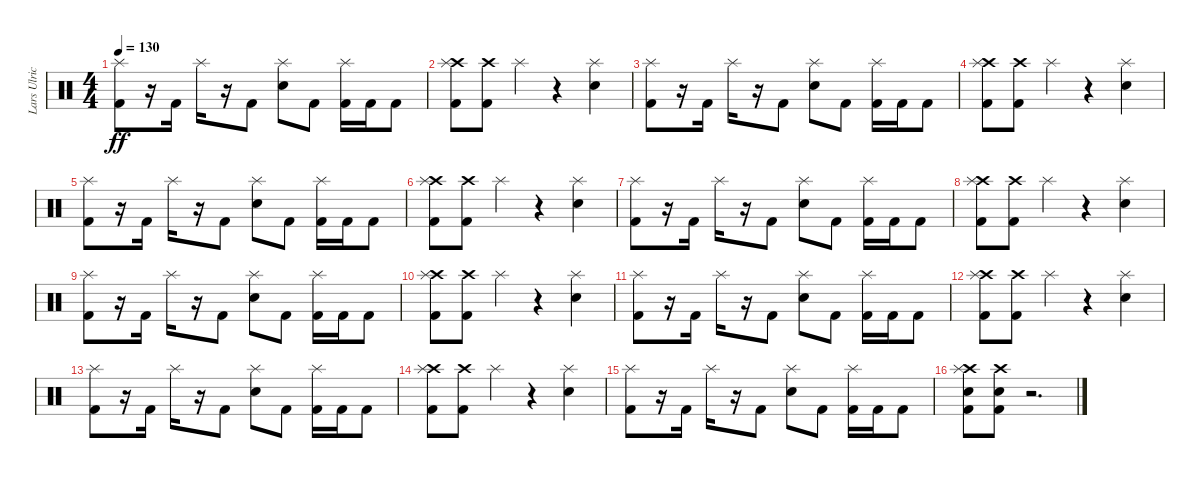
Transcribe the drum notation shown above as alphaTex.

\track ("Lars Ulrich" "Lars Ulric") {instrument percussion}
\staff {score}
\articulation defaults
\ts (4 4)
\tempo 130
\clef neutral
\ks c
("Kick (hit) 2" "Splash (hit)").8{dy ff} r.16 "Kick (hit) 2".16 "Splash (hit)".16 r.16 "Kick (hit) 2".8 ("Electric Snare (hit)" "Splash (hit)").8 "Kick (hit) 2".8 ("Kick (hit) 2" "Splash (hit)").16 "Kick (hit) 2".16 "Kick (hit) 2".8 |
("Kick (hit) 2" "Crash high (hit)" "Splash (hit)").8 ("Kick (hit) 2" "Crash high (hit)").8 "Splash (hit)".4 r.4 ("Electric Snare (hit)" "Splash (hit)").4 |
("Kick (hit) 2" "Splash (hit)").8 r.16 "Kick (hit) 2".16 "Splash (hit)".16 r.16 "Kick (hit) 2".8 ("Electric Snare (hit)" "Splash (hit)").8 "Kick (hit) 2".8 ("Kick (hit) 2" "Splash (hit)").16 "Kick (hit) 2".16 "Kick (hit) 2".8 |
("Kick (hit) 2" "Crash high (hit)" "Splash (hit)").8 ("Kick (hit) 2" "Crash high (hit)").8 "Splash (hit)".4 r.4 ("Electric Snare (hit)" "Splash (hit)").4 |
("Kick (hit) 2" "Splash (hit)").8 r.16 "Kick (hit) 2".16 "Splash (hit)".16 r.16 "Kick (hit) 2".8 ("Electric Snare (hit)" "Splash (hit)").8 "Kick (hit) 2".8 ("Kick (hit) 2" "Splash (hit)").16 "Kick (hit) 2".16 "Kick (hit) 2".8 |
("Kick (hit) 2" "Crash high (hit)" "Splash (hit)").8 ("Kick (hit) 2" "Crash high (hit)").8 "Splash (hit)".4 r.4 ("Electric Snare (hit)" "Splash (hit)").4 |
("Kick (hit) 2" "Splash (hit)").8 r.16 "Kick (hit) 2".16 "Splash (hit)".16 r.16 "Kick (hit) 2".8 ("Electric Snare (hit)" "Splash (hit)").8 "Kick (hit) 2".8 ("Kick (hit) 2" "Splash (hit)").16 "Kick (hit) 2".16 "Kick (hit) 2".8 |
("Kick (hit) 2" "Crash high (hit)" "Splash (hit)").8 ("Kick (hit) 2" "Crash high (hit)").8 "Splash (hit)".4 r.4 ("Electric Snare (hit)" "Splash (hit)").4 |
("Kick (hit) 2" "Splash (hit)").8 r.16 "Kick (hit) 2".16 "Splash (hit)".16 r.16 "Kick (hit) 2".8 ("Electric Snare (hit)" "Splash (hit)").8 "Kick (hit) 2".8 ("Kick (hit) 2" "Splash (hit)").16 "Kick (hit) 2".16 "Kick (hit) 2".8 |
("Kick (hit) 2" "Crash high (hit)" "Splash (hit)").8 ("Kick (hit) 2" "Crash high (hit)").8 "Splash (hit)".4 r.4 ("Electric Snare (hit)" "Splash (hit)").4 |
("Kick (hit) 2" "Splash (hit)").8 r.16 "Kick (hit) 2".16 "Splash (hit)".16 r.16 "Kick (hit) 2".8 ("Electric Snare (hit)" "Splash (hit)").8 "Kick (hit) 2".8 ("Kick (hit) 2" "Splash (hit)").16 "Kick (hit) 2".16 "Kick (hit) 2".8 |
("Kick (hit) 2" "Crash high (hit)" "Splash (hit)").8 ("Kick (hit) 2" "Crash high (hit)").8 "Splash (hit)".4 r.4 ("Electric Snare (hit)" "Splash (hit)").4 |
("Kick (hit) 2" "Splash (hit)").8 r.16 "Kick (hit) 2".16 "Splash (hit)".16 r.16 "Kick (hit) 2".8 ("Electric Snare (hit)" "Splash (hit)").8 "Kick (hit) 2".8 ("Kick (hit) 2" "Splash (hit)").16 "Kick (hit) 2".16 "Kick (hit) 2".8 |
("Kick (hit) 2" "Crash high (hit)" "Splash (hit)").8 ("Kick (hit) 2" "Crash high (hit)").8 "Splash (hit)".4 r.4 ("Electric Snare (hit)" "Splash (hit)").4 |
("Kick (hit) 2" "Splash (hit)").8 r.16 "Kick (hit) 2".16 "Splash (hit)".16 r.16 "Kick (hit) 2".8 ("Electric Snare (hit)" "Splash (hit)").8 "Kick (hit) 2".8 ("Kick (hit) 2" "Splash (hit)").16 "Kick (hit) 2".16 "Kick (hit) 2".8 |
("Kick (hit) 2" "Electric Snare (hit)" "Crash high (hit)" "Splash (hit)").8 ("Kick (hit) 2" "Electric Snare (hit)" "Crash high (hit)").8 r.2{d}
